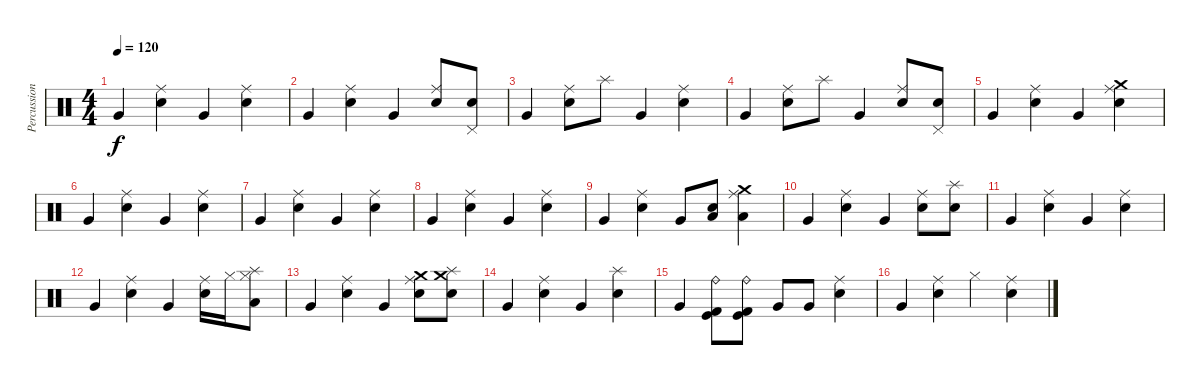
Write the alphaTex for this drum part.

\track ("Percussion" "Percussion") {instrument percussion}
\staff {score}
\articulation defaults
\ts (4 4)
\tempo 120
\clef neutral
\ks c "Very Low Tom (hit)".4{dy f}
("Ride (middle)" "Snare (hit) 2").4 "Very Low Tom (hit)".4 ("Ride (middle)" "Snare (hit) 2").4 |
"Very Low Tom (hit)".4 ("Ride (middle)" "Snare (hit) 2").4 "Very Low Tom (hit)".4 ("Ride (middle)" "Snare (hit) 2").8 ("Pedal Hi-Hat (hit)" "Snare (hit) 2").8 |
"Very Low Tom (hit)".4 ("Ride (middle)" "Snare (hit) 2").8 "Splash (hit)".8 "Very Low Tom (hit)".4 ("Ride (middle)" "Snare (hit) 2").4 |
"Very Low Tom (hit)".4 ("Ride (middle)" "Snare (hit) 2").8 "Splash (hit)".8 "Very Low Tom (hit)".4 ("Ride (middle)" "Snare (hit) 2").8 ("Pedal Hi-Hat (hit)" "Snare (hit) 2").8 |
"Very Low Tom (hit)".4 ("Ride (middle)" "Snare (hit) 2").4 "Very Low Tom (hit)".4 ("Crash medium (hit)" "Ride (middle)" "Snare (hit) 2").4 |
"Very Low Tom (hit)".4 ("Ride (middle)" "Snare (hit) 2").4 "Very Low Tom (hit)".4 ("Ride (middle)" "Snare (hit) 2").4 |
"Very Low Tom (hit)".4 ("Ride (middle)" "Snare (hit) 2").4 "Very Low Tom (hit)".4 ("Ride (middle)" "Snare (hit) 2").4 |
"Very Low Tom (hit)".4 ("Ride (middle)" "Snare (hit) 2").4 "Very Low Tom (hit)".4 ("Ride (middle)" "Snare (hit) 2").4 |
"Very Low Tom (hit)".4 ("Ride (middle)" "Snare (hit) 2").4 "Very Low Tom (hit)".8 ("Electric Snare (hit)" "Low Floor Tom (hit)").8 ("Crash medium (hit)" "Ride (middle)" "Low Tom (hit)").4 |
"Very Low Tom (hit)".4 ("Ride (middle)" "Snare (hit) 2").4 "Very Low Tom (hit)".4 ("Ride (middle)" "Snare (hit) 2").8 ("Splash (hit)" "Snare (hit) 2").8 |
"Very Low Tom (hit)".4 ("Ride (middle)" "Snare (hit) 2").4 "Very Low Tom (hit)".4 ("Ride (middle)" "Snare (hit) 2").4 |
"Very Low Tom (hit)".4 ("Ride (middle)" "Snare (hit) 2").4 "Very Low Tom (hit)".4 ("Ride (middle)" "Snare (hit) 2").16 "Hi-Hat (closed)".16 ("Splash (hit)" "Low Floor Tom (hit)" "Hi-Hat (closed)").8 |
"Very Low Tom (hit)".4 ("Ride (middle)" "Snare (hit) 2").4 "Very Low Tom (hit)".4 ("Crash medium (hit)" "Ride (middle)" "Snare (hit) 2").8 ("Crash medium (hit)" "Splash (hit)" "Electric Snare (hit)").8 |
"Very Low Tom (hit)".4 ("Ride (middle)" "Snare (hit) 2").4 "Very Low Tom (hit)".4 ("Splash (hit)" "Snare (hit) 2").4 |
"Very Low Tom (hit)".4 ("Ride (bell)" "Kick (hit)" "Kick (hit) 2").8 ("Ride (bell)" "Kick (hit)" "Kick (hit) 2").8 "Very Low Tom (hit)".8 "Very Low Tom (hit)".8 ("Ride (middle)" "Snare (hit) 2").4 |
"Very Low Tom (hit)".4 ("Ride (middle)" "Snare (hit) 2").4 "Hi-Hat (closed)".4 ("Ride (middle)" "Snare (hit) 2").4
